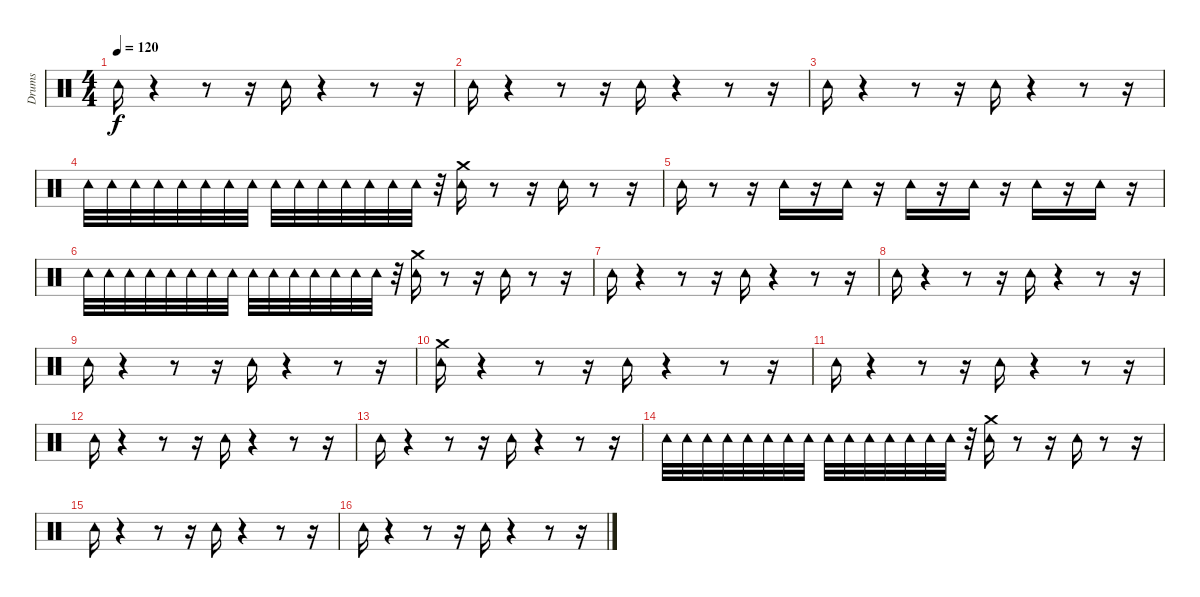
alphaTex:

\track ("Drums" "Drums") {instrument percussion}
\staff {score}
\articulation defaults
\ts (4 4)
\tempo 120
\clef neutral
\ks c "Tambourine (hit)".16{dy f}
r.4 r.8 r.16 "Tambourine (hit)".16 r.4 r.8 r.16 |
"Tambourine (hit)".16 r.4 r.8 r.16 "Tambourine (hit)".16 r.4 r.8 r.16 |
"Tambourine (hit)".16 r.4 r.8 r.16 "Tambourine (hit)".16 r.4 r.8 r.16 |
"Tambourine (hit)".32 "Tambourine (hit)".32 "Tambourine (hit)".32 "Tambourine (hit)".32 "Tambourine (hit)".32 "Tambourine (hit)".32 "Tambourine (hit)".32 "Tambourine (hit)".32 "Tambourine (hit)".32 "Tambourine (hit)".32 "Tambourine (hit)".32 "Tambourine (hit)".32 "Tambourine (hit)".32 "Tambourine (hit)".32 "Tambourine (hit)".32 r.32 ("Crash medium (hit)" "Tambourine (hit)").16 r.8 r.16 "Tambourine (hit)".16 r.8 r.16 |
"Tambourine (hit)".16 r.8 r.16 "Tambourine (hit)".16 r.16 "Tambourine (hit)".16 r.16 "Tambourine (hit)".16 r.16 "Tambourine (hit)".16 r.16 "Tambourine (hit)".16 r.16 "Tambourine (hit)".16 r.16 |
"Tambourine (hit)".32 "Tambourine (hit)".32 "Tambourine (hit)".32 "Tambourine (hit)".32 "Tambourine (hit)".32 "Tambourine (hit)".32 "Tambourine (hit)".32 "Tambourine (hit)".32 "Tambourine (hit)".32 "Tambourine (hit)".32 "Tambourine (hit)".32 "Tambourine (hit)".32 "Tambourine (hit)".32 "Tambourine (hit)".32 "Tambourine (hit)".32 r.32 ("Crash medium (hit)" "Tambourine (hit)").16 r.8 r.16 "Tambourine (hit)".16 r.8 r.16 |
"Tambourine (hit)".16 r.4 r.8 r.16 "Tambourine (hit)".16 r.4 r.8 r.16 |
"Tambourine (hit)".16 r.4 r.8 r.16 "Tambourine (hit)".16 r.4 r.8 r.16 |
"Tambourine (hit)".16 r.4 r.8 r.16 "Tambourine (hit)".16 r.4 r.8 r.16 |
("Crash medium (hit)" "Tambourine (hit)").16 r.4 r.8 r.16 "Tambourine (hit)".16 r.4 r.8 r.16 |
"Tambourine (hit)".16 r.4 r.8 r.16 "Tambourine (hit)".16 r.4 r.8 r.16 |
"Tambourine (hit)".16 r.4 r.8 r.16 "Tambourine (hit)".16 r.4 r.8 r.16 |
"Tambourine (hit)".16 r.4 r.8 r.16 "Tambourine (hit)".16 r.4 r.8 r.16 |
"Tambourine (hit)".32 "Tambourine (hit)".32 "Tambourine (hit)".32 "Tambourine (hit)".32 "Tambourine (hit)".32 "Tambourine (hit)".32 "Tambourine (hit)".32 "Tambourine (hit)".32 "Tambourine (hit)".32 "Tambourine (hit)".32 "Tambourine (hit)".32 "Tambourine (hit)".32 "Tambourine (hit)".32 "Tambourine (hit)".32 "Tambourine (hit)".32 r.32 ("Crash medium (hit)" "Tambourine (hit)").16 r.8 r.16 "Tambourine (hit)".16 r.8 r.16 |
"Tambourine (hit)".16 r.4 r.8 r.16 "Tambourine (hit)".16 r.4 r.8 r.16 |
"Tambourine (hit)".16 r.4 r.8 r.16 "Tambourine (hit)".16 r.4 r.8 r.16
